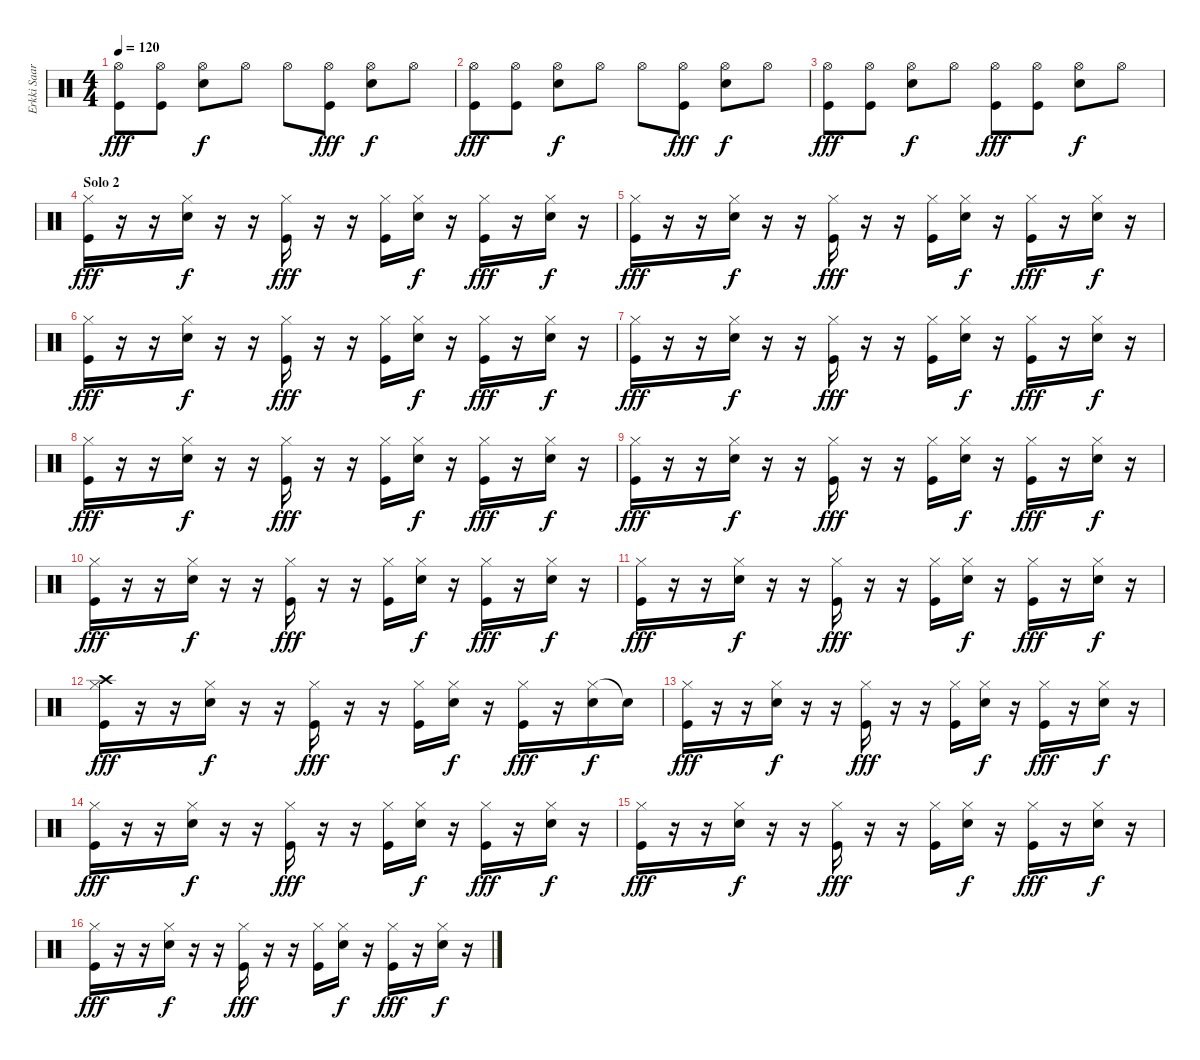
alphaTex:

\track ("Erkki Saarinen" "Erkki Saar") {instrument percussion}
\staff {score}
\articulation defaults
\ts (4 4)
\tempo 120
\clef neutral
\ks c
("Hi-Hat (open)" "Kick (hit)").8{dy fff} ("Hi-Hat (open)" "Kick (hit)").8 ("Hi-Hat (open)" "Snare (hit) 2").8{dy f} "Hi-Hat (open)".8 "Hi-Hat (open)".8 ("Hi-Hat (open)" "Kick (hit)").8{dy fff} ("Hi-Hat (open)" "Snare (hit) 2").8{dy f} "Hi-Hat (open)".8 |
("Hi-Hat (open)" "Kick (hit)").8{dy fff} ("Hi-Hat (open)" "Kick (hit)").8 ("Hi-Hat (open)" "Snare (hit) 2").8{dy f} "Hi-Hat (open)".8 "Hi-Hat (open)".8 ("Hi-Hat (open)" "Kick (hit)").8{dy fff} ("Hi-Hat (open)" "Snare (hit) 2").8{dy f} "Hi-Hat (open)".8 |
("Hi-Hat (open)" "Kick (hit)").8{dy fff} ("Hi-Hat (open)" "Kick (hit)").8 ("Hi-Hat (open)" "Snare (hit) 2").8{dy f} "Hi-Hat (open)".8 ("Hi-Hat (open)" "Kick (hit)").8{dy fff} ("Hi-Hat (open)" "Kick (hit)").8 ("Hi-Hat (open)" "Snare (hit) 2").8{dy f} "Hi-Hat (open)".8 |
\section ("" "Solo 2")
("Hi-Hat (closed)" "Kick (hit)").16{dy fff} r.16 r.16 ("Hi-Hat (closed)" "Snare (hit) 2").16{dy f} r.16 r.16 ("Hi-Hat (closed)" "Kick (hit)").16{dy fff} r.16 r.16 ("Hi-Hat (closed)" "Kick (hit)").16 ("Hi-Hat (closed)" "Snare (hit) 2").16{dy f} r.16 ("Hi-Hat (closed)" "Kick (hit)").16{dy fff} r.16 ("Hi-Hat (closed)" "Snare (hit) 2").16{dy f} r.16 |
("Hi-Hat (closed)" "Kick (hit)").16{dy fff} r.16 r.16 ("Hi-Hat (closed)" "Snare (hit) 2").16{dy f} r.16 r.16 ("Hi-Hat (closed)" "Kick (hit)").16{dy fff} r.16 r.16 ("Hi-Hat (closed)" "Kick (hit)").16 ("Hi-Hat (closed)" "Snare (hit) 2").16{dy f} r.16 ("Hi-Hat (closed)" "Kick (hit)").16{dy fff} r.16 ("Hi-Hat (closed)" "Snare (hit) 2").16{dy f} r.16 |
("Hi-Hat (closed)" "Kick (hit)").16{dy fff} r.16 r.16 ("Hi-Hat (closed)" "Snare (hit) 2").16{dy f} r.16 r.16 ("Hi-Hat (closed)" "Kick (hit)").16{dy fff} r.16 r.16 ("Hi-Hat (closed)" "Kick (hit)").16 ("Hi-Hat (closed)" "Snare (hit) 2").16{dy f} r.16 ("Hi-Hat (closed)" "Kick (hit)").16{dy fff} r.16 ("Hi-Hat (closed)" "Snare (hit) 2").16{dy f} r.16 |
("Hi-Hat (closed)" "Kick (hit)").16{dy fff} r.16 r.16 ("Hi-Hat (closed)" "Snare (hit) 2").16{dy f} r.16 r.16 ("Hi-Hat (closed)" "Kick (hit)").16{dy fff} r.16 r.16 ("Hi-Hat (closed)" "Kick (hit)").16 ("Hi-Hat (closed)" "Snare (hit) 2").16{dy f} r.16 ("Hi-Hat (closed)" "Kick (hit)").16{dy fff} r.16 ("Hi-Hat (closed)" "Snare (hit) 2").16{dy f} r.16 |
("Hi-Hat (closed)" "Kick (hit)").16{dy fff} r.16 r.16 ("Hi-Hat (closed)" "Snare (hit) 2").16{dy f} r.16 r.16 ("Hi-Hat (closed)" "Kick (hit)").16{dy fff} r.16 r.16 ("Hi-Hat (closed)" "Kick (hit)").16 ("Hi-Hat (closed)" "Snare (hit) 2").16{dy f} r.16 ("Hi-Hat (closed)" "Kick (hit)").16{dy fff} r.16 ("Hi-Hat (closed)" "Snare (hit) 2").16{dy f} r.16 |
("Hi-Hat (closed)" "Kick (hit)").16{dy fff} r.16 r.16 ("Hi-Hat (closed)" "Snare (hit) 2").16{dy f} r.16 r.16 ("Hi-Hat (closed)" "Kick (hit)").16{dy fff} r.16 r.16 ("Hi-Hat (closed)" "Kick (hit)").16 ("Hi-Hat (closed)" "Snare (hit) 2").16{dy f} r.16 ("Hi-Hat (closed)" "Kick (hit)").16{dy fff} r.16 ("Hi-Hat (closed)" "Snare (hit) 2").16{dy f} r.16 |
("Hi-Hat (closed)" "Kick (hit)").16{dy fff} r.16 r.16 ("Hi-Hat (closed)" "Snare (hit) 2").16{dy f} r.16 r.16 ("Hi-Hat (closed)" "Kick (hit)").16{dy fff} r.16 r.16 ("Hi-Hat (closed)" "Kick (hit)").16 ("Hi-Hat (closed)" "Snare (hit) 2").16{dy f} r.16 ("Hi-Hat (closed)" "Kick (hit)").16{dy fff} r.16 ("Hi-Hat (closed)" "Snare (hit) 2").16{dy f} r.16 |
("Hi-Hat (closed)" "Kick (hit)").16{dy fff} r.16 r.16 ("Hi-Hat (closed)" "Snare (hit) 2").16{dy f} r.16 r.16 ("Hi-Hat (closed)" "Kick (hit)").16{dy fff} r.16 r.16 ("Hi-Hat (closed)" "Kick (hit)").16 ("Hi-Hat (closed)" "Snare (hit) 2").16{dy f} r.16 ("Hi-Hat (closed)" "Kick (hit)").16{dy fff} r.16 ("Hi-Hat (closed)" "Snare (hit) 2").16{dy f} r.16 |
("Crash high (hit)" "Hi-Hat (closed)" "Kick (hit)").16{dy fff volume 12} r.16 r.16 ("Hi-Hat (closed)" "Snare (hit) 2").16{dy f} r.16 r.16 ("Hi-Hat (closed)" "Kick (hit)").16{dy fff} r.16 r.16{volume 11} ("Hi-Hat (closed)" "Kick (hit)").16 ("Hi-Hat (closed)" "Snare (hit) 2").16{dy f} r.16 ("Hi-Hat (closed)" "Kick (hit)").16{dy fff} r.16 ("Hi-Hat (closed)" "Snare (hit) 2").16{dy f} "Snare (hit)"{t}.16 |
("Hi-Hat (closed)" "Kick (hit)").16{dy fff volume 10} r.16 r.16 ("Hi-Hat (closed)" "Snare (hit) 2").16{dy f} r.16 r.16 ("Hi-Hat (closed)" "Kick (hit)").16{dy fff} r.16 r.16{volume 9} ("Hi-Hat (closed)" "Kick (hit)").16 ("Hi-Hat (closed)" "Snare (hit) 2").16{dy f} r.16 ("Hi-Hat (closed)" "Kick (hit)").16{dy fff} r.16 ("Hi-Hat (closed)" "Snare (hit) 2").16{dy f} r.16 |
("Hi-Hat (closed)" "Kick (hit)").16{dy fff volume 8} r.16 r.16 ("Hi-Hat (closed)" "Snare (hit) 2").16{dy f} r.16 r.16 ("Hi-Hat (closed)" "Kick (hit)").16{dy fff} r.16 r.16{volume 7} ("Hi-Hat (closed)" "Kick (hit)").16 ("Hi-Hat (closed)" "Snare (hit) 2").16{dy f} r.16 ("Hi-Hat (closed)" "Kick (hit)").16{dy fff} r.16 ("Hi-Hat (closed)" "Snare (hit) 2").16{dy f} r.16 |
("Hi-Hat (closed)" "Kick (hit)").16{dy fff volume 6} r.16 r.16 ("Hi-Hat (closed)" "Snare (hit) 2").16{dy f} r.16 r.16 ("Hi-Hat (closed)" "Kick (hit)").16{dy fff} r.16 r.16{volume 5} ("Hi-Hat (closed)" "Kick (hit)").16 ("Hi-Hat (closed)" "Snare (hit) 2").16{dy f} r.16 ("Hi-Hat (closed)" "Kick (hit)").16{dy fff} r.16 ("Hi-Hat (closed)" "Snare (hit) 2").16{dy f} r.16 |
("Hi-Hat (closed)" "Kick (hit)").16{dy fff volume 4} r.16 r.16 ("Hi-Hat (closed)" "Snare (hit) 2").16{dy f} r.16 r.16 ("Hi-Hat (closed)" "Kick (hit)").16{dy fff} r.16 r.16{volume 3} ("Hi-Hat (closed)" "Kick (hit)").16 ("Hi-Hat (closed)" "Snare (hit) 2").16{dy f} r.16 ("Hi-Hat (closed)" "Kick (hit)").16{dy fff} r.16 ("Hi-Hat (closed)" "Snare (hit) 2").16{dy f} r.16
